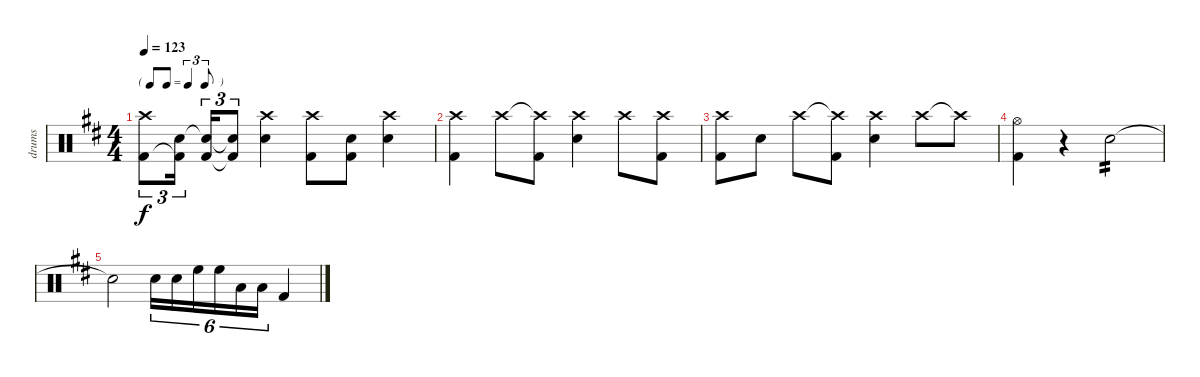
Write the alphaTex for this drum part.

\track ("drums" "drums") {instrument percussion}
\staff {score}
\articulation defaults
\ts (4 4)
\tf triplet8th
\tempo 123
\clef neutral
\ks d
("Crash high (hit)" "Kick (hit) 2").8{tu (3 2) dy f} ("Snare (hit) 2" "Kick (hit) 2"{t}).16{tu (3 2)} ("Snare (hit) 2"{t} "Kick (hit) 2").16{tu (3 2)} ("Snare (hit) 2"{t} "Kick (hit) 2"{t}).8{tu (3 2)} ("Crash high (hit)" "Snare (hit) 2").4 ("Crash high (hit)" "Kick (hit) 2").8 ("Snare (hit) 2" "Kick (hit) 2").8 ("Crash high (hit)" "Snare (hit) 2").4 |
("Crash high (hit)" "Kick (hit) 2").4 "Crash high (hit)".8 ("Crash high (hit)"{t} "Kick (hit) 2").8 ("Crash high (hit)" "Snare (hit) 2").4 "Crash high (hit)".8 ("Crash high (hit)" "Kick (hit) 2").8 |
("Crash high (hit)" "Kick (hit) 2").8 "Snare (hit) 2".8 "Crash high (hit)".8 ("Crash high (hit)"{t} "Kick (hit) 2").8 ("Crash high (hit)" "Snare (hit) 2").4 "Crash high (hit)".8 "Crash high (hit)"{t}.8 |
("Hi-Hat (open)" "Kick (hit) 2").4 r.4 "Snare (hit) 2".2{tp 2} |
"Snare (hit) 2"{t}.2 "Snare (hit) 2".16{tu (6 4)} "Snare (hit) 2".16{tu (6 4)} "High Floor Tom (hit)".16{tu (6 4)} "High Floor Tom (hit)".16{tu (6 4)} "Low Tom (hit)".16{tu (6 4)} "Low Tom (hit)".16{tu (6 4)} "Kick (hit) 2".4
